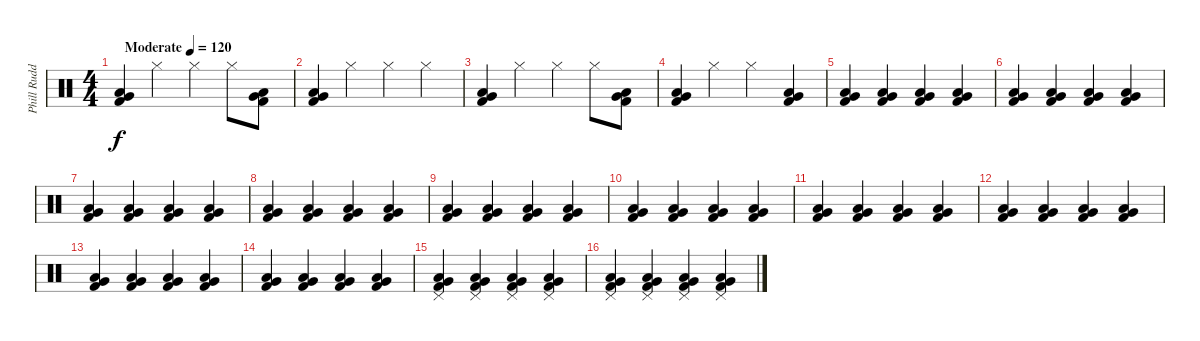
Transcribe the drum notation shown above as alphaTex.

\track ("Phill Rudd" "Phill Rudd") {instrument percussion}
\staff {score}
\articulation defaults
\ts (4 4)
\tempo (120 "Moderate")
\clef neutral
\ks c
("Kick (hit) 2" "Very Low Tom (hit)" "Low Floor Tom (hit)").4{dy f} "Hi-Hat (closed)".4 "Hi-Hat (closed)".4 "Hi-Hat (closed)".8 ("Kick (hit) 2" "Very Low Tom (hit)" "Low Floor Tom (hit)").8 |
("Kick (hit) 2" "Very Low Tom (hit)" "Low Floor Tom (hit)").4 "Hi-Hat (closed)".4 "Hi-Hat (closed)".4 "Hi-Hat (closed)".4 |
("Kick (hit) 2" "Very Low Tom (hit)" "Low Floor Tom (hit)").4 "Hi-Hat (closed)".4 "Hi-Hat (closed)".4 "Hi-Hat (closed)".8 ("Kick (hit) 2" "Very Low Tom (hit)" "Low Floor Tom (hit)").8 |
("Kick (hit) 2" "Very Low Tom (hit)" "Low Floor Tom (hit)").4 "Hi-Hat (closed)".4 "Hi-Hat (closed)".4 ("Kick (hit) 2" "Very Low Tom (hit)" "Low Floor Tom (hit)").4 |
("Kick (hit) 2" "Very Low Tom (hit)" "Low Floor Tom (hit)").4 ("Kick (hit) 2" "Very Low Tom (hit)" "Low Floor Tom (hit)").4 ("Kick (hit) 2" "Very Low Tom (hit)" "Low Floor Tom (hit)").4 ("Kick (hit) 2" "Very Low Tom (hit)" "Low Floor Tom (hit)").4 |
("Kick (hit) 2" "Very Low Tom (hit)" "Low Floor Tom (hit)").4 ("Kick (hit) 2" "Very Low Tom (hit)" "Low Floor Tom (hit)").4 ("Kick (hit) 2" "Very Low Tom (hit)" "Low Floor Tom (hit)").4 ("Kick (hit) 2" "Very Low Tom (hit)" "Low Floor Tom (hit)").4 |
("Kick (hit) 2" "Very Low Tom (hit)" "Low Floor Tom (hit)").4 ("Kick (hit) 2" "Very Low Tom (hit)" "Low Floor Tom (hit)").4 ("Kick (hit) 2" "Very Low Tom (hit)" "Low Floor Tom (hit)").4 ("Kick (hit) 2" "Very Low Tom (hit)" "Low Floor Tom (hit)").4 |
("Kick (hit) 2" "Very Low Tom (hit)" "Low Floor Tom (hit)").4 ("Kick (hit) 2" "Very Low Tom (hit)" "Low Floor Tom (hit)").4 ("Kick (hit) 2" "Very Low Tom (hit)" "Low Floor Tom (hit)").4 ("Kick (hit) 2" "Very Low Tom (hit)" "Low Floor Tom (hit)").4 |
("Kick (hit) 2" "Very Low Tom (hit)" "Low Floor Tom (hit)").4 ("Kick (hit) 2" "Very Low Tom (hit)" "Low Floor Tom (hit)").4 ("Kick (hit) 2" "Very Low Tom (hit)" "Low Floor Tom (hit)").4 ("Kick (hit) 2" "Very Low Tom (hit)" "Low Floor Tom (hit)").4 |
("Kick (hit) 2" "Very Low Tom (hit)" "Low Floor Tom (hit)").4 ("Kick (hit) 2" "Very Low Tom (hit)" "Low Floor Tom (hit)").4 ("Kick (hit) 2" "Very Low Tom (hit)" "Low Floor Tom (hit)").4 ("Kick (hit) 2" "Very Low Tom (hit)" "Low Floor Tom (hit)").4 |
("Kick (hit) 2" "Very Low Tom (hit)" "Low Floor Tom (hit)").4 ("Kick (hit) 2" "Very Low Tom (hit)" "Low Floor Tom (hit)").4 ("Kick (hit) 2" "Very Low Tom (hit)" "Low Floor Tom (hit)").4 ("Kick (hit) 2" "Very Low Tom (hit)" "Low Floor Tom (hit)").4 |
("Kick (hit) 2" "Very Low Tom (hit)" "Low Floor Tom (hit)").4 ("Kick (hit) 2" "Very Low Tom (hit)" "Low Floor Tom (hit)").4 ("Kick (hit) 2" "Very Low Tom (hit)" "Low Floor Tom (hit)").4 ("Kick (hit) 2" "Very Low Tom (hit)" "Low Floor Tom (hit)").4 |
("Kick (hit) 2" "Very Low Tom (hit)" "Low Floor Tom (hit)").4 ("Kick (hit) 2" "Very Low Tom (hit)" "Low Floor Tom (hit)").4 ("Kick (hit) 2" "Very Low Tom (hit)" "Low Floor Tom (hit)").4 ("Kick (hit) 2" "Very Low Tom (hit)" "Low Floor Tom (hit)").4 |
("Kick (hit) 2" "Very Low Tom (hit)" "Low Floor Tom (hit)").4 ("Kick (hit) 2" "Very Low Tom (hit)" "Low Floor Tom (hit)").4 ("Kick (hit) 2" "Very Low Tom (hit)" "Low Floor Tom (hit)").4 ("Kick (hit) 2" "Very Low Tom (hit)" "Low Floor Tom (hit)").4 |
("Kick (hit) 2" "Very Low Tom (hit)" "Low Floor Tom (hit)" "Pedal Hi-Hat (hit)").4 ("Kick (hit) 2" "Very Low Tom (hit)" "Low Floor Tom (hit)" "Pedal Hi-Hat (hit)").4 ("Kick (hit) 2" "Very Low Tom (hit)" "Low Floor Tom (hit)" "Pedal Hi-Hat (hit)").4 ("Kick (hit) 2" "Very Low Tom (hit)" "Low Floor Tom (hit)" "Pedal Hi-Hat (hit)").4 |
("Kick (hit) 2" "Very Low Tom (hit)" "Low Floor Tom (hit)" "Pedal Hi-Hat (hit)").4 ("Kick (hit) 2" "Very Low Tom (hit)" "Low Floor Tom (hit)" "Pedal Hi-Hat (hit)").4 ("Kick (hit) 2" "Very Low Tom (hit)" "Low Floor Tom (hit)" "Pedal Hi-Hat (hit)").4 ("Kick (hit) 2" "Very Low Tom (hit)" "Low Floor Tom (hit)" "Pedal Hi-Hat (hit)").4
